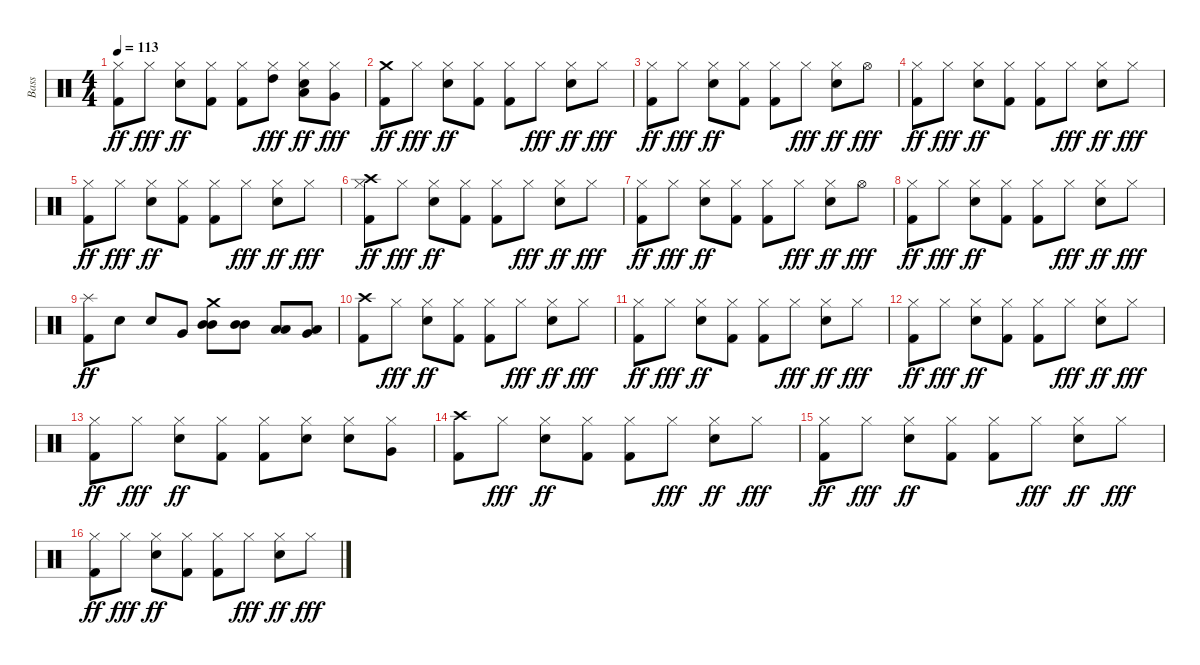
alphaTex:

\track (" Bass" " Bass") {instrument percussion}
\staff {score}
\articulation defaults
\ts (4 4)
\tempo 113
\clef neutral
\ks c
("Hi-Hat (closed)" "Kick (hit) 2").8{dy ff} "Hi-Hat (closed)".8{dy fff} ("Hi-Hat (closed)" "Snare (hit) 2").8{dy ff} ("Hi-Hat (closed)" "Kick (hit) 2").8 ("Hi-Hat (closed)" "Kick (hit) 2").8 ("Hi-Hat (closed)" "High Tom (hit)").8{dy fff} ("Hi-Hat (closed)" "Low Tom (hit)" "Snare (hit) 2").8{dy ff} ("Hi-Hat (closed)" "Very Low Tom (hit)").8{dy fff} |
("Crash medium (hit)" "Kick (hit) 2").8{dy ff} "Hi-Hat (closed)".8{dy fff} ("Hi-Hat (closed)" "Snare (hit) 2").8{dy ff} ("Hi-Hat (closed)" "Kick (hit) 2").8 ("Hi-Hat (closed)" "Kick (hit) 2").8 "Hi-Hat (closed)".8{dy fff} ("Hi-Hat (closed)" "Snare (hit) 2").8{dy ff} "Hi-Hat (closed)".8{dy fff} |
("Hi-Hat (closed)" "Kick (hit) 2").8{dy ff} "Hi-Hat (closed)".8{dy fff} ("Hi-Hat (closed)" "Snare (hit) 2").8{dy ff} ("Hi-Hat (closed)" "Kick (hit) 2").8 ("Hi-Hat (closed)" "Kick (hit) 2").8 "Hi-Hat (closed)".8{dy fff} ("Hi-Hat (closed)" "Snare (hit) 2").8{dy ff} "Hi-Hat (open)".8{dy fff} |
("Hi-Hat (closed)" "Kick (hit) 2").8{dy ff} "Hi-Hat (closed)".8{dy fff} ("Hi-Hat (closed)" "Snare (hit) 2").8{dy ff} ("Hi-Hat (closed)" "Kick (hit) 2").8 ("Hi-Hat (closed)" "Kick (hit) 2").8 "Hi-Hat (closed)".8{dy fff} ("Hi-Hat (closed)" "Snare (hit) 2").8{dy ff} "Hi-Hat (closed)".8{dy fff} |
("Hi-Hat (closed)" "Kick (hit) 2").8{dy ff} "Hi-Hat (closed)".8{dy fff} ("Hi-Hat (closed)" "Snare (hit) 2").8{dy ff} ("Hi-Hat (closed)" "Kick (hit) 2").8 ("Hi-Hat (closed)" "Kick (hit) 2").8 "Hi-Hat (closed)".8{dy fff} ("Hi-Hat (closed)" "Snare (hit) 2").8{dy ff} "Hi-Hat (closed)".8{dy fff} |
("Crash high (hit)" "Hi-Hat (closed)" "Kick (hit) 2").8{dy ff} "Hi-Hat (closed)".8{dy fff} ("Hi-Hat (closed)" "Snare (hit) 2").8{dy ff} ("Hi-Hat (closed)" "Kick (hit) 2").8 ("Hi-Hat (closed)" "Kick (hit) 2").8 "Hi-Hat (closed)".8{dy fff} ("Hi-Hat (closed)" "Snare (hit) 2").8{dy ff} "Hi-Hat (closed)".8{dy fff} |
("Hi-Hat (closed)" "Kick (hit) 2").8{dy ff} "Hi-Hat (closed)".8{dy fff} ("Hi-Hat (closed)" "Snare (hit) 2").8{dy ff} ("Hi-Hat (closed)" "Kick (hit) 2").8 ("Hi-Hat (closed)" "Kick (hit) 2").8 "Hi-Hat (closed)".8{dy fff} ("Hi-Hat (closed)" "Snare (hit) 2").8{dy ff} "Hi-Hat (open)".8{dy fff} |
("Hi-Hat (closed)" "Kick (hit) 2").8{dy ff} "Hi-Hat (closed)".8{dy fff} ("Hi-Hat (closed)" "Snare (hit) 2").8{dy ff} ("Hi-Hat (closed)" "Kick (hit) 2").8 ("Hi-Hat (closed)" "Kick (hit) 2").8 "Hi-Hat (closed)".8{dy fff} ("Hi-Hat (closed)" "Snare (hit) 2").8{dy ff} "Hi-Hat (closed)".8{dy fff} |
("Splash (hit)" "Kick (hit) 2").8{dy ff} "Snare (hit) 2".8 "Snare (hit) 2".8 "Very Low Tom (hit)".8 ("Crash medium (hit)" "Mid Tom (hit)" "Mid Tom (hit)").8 ("Mid Tom (hit)" "Mid Tom (hit)").8 ("Low Tom (hit)" "Low Tom (hit)").8 ("Very Low Tom (hit)" "Low Floor Tom (hit)").8 |
("Crash high (hit)" "Kick (hit) 2").8 "Hi-Hat (closed)".8{dy fff} ("Hi-Hat (closed)" "Snare (hit) 2").8{dy ff} ("Hi-Hat (closed)" "Kick (hit) 2").8 ("Hi-Hat (closed)" "Kick (hit) 2").8 "Hi-Hat (closed)".8{dy fff} ("Hi-Hat (closed)" "Snare (hit) 2").8{dy ff} "Hi-Hat (closed)".8{dy fff} |
("Hi-Hat (closed)" "Kick (hit) 2").8{dy ff} "Hi-Hat (closed)".8{dy fff} ("Hi-Hat (closed)" "Snare (hit) 2").8{dy ff} ("Hi-Hat (closed)" "Kick (hit) 2").8 ("Hi-Hat (closed)" "Kick (hit) 2").8 "Hi-Hat (closed)".8{dy fff} ("Hi-Hat (closed)" "Snare (hit) 2").8{dy ff} "Hi-Hat (closed)".8{dy fff} |
("Hi-Hat (closed)" "Kick (hit) 2").8{dy ff} "Hi-Hat (closed)".8{dy fff} ("Hi-Hat (closed)" "Snare (hit) 2").8{dy ff} ("Hi-Hat (closed)" "Kick (hit) 2").8 ("Hi-Hat (closed)" "Kick (hit) 2").8 "Hi-Hat (closed)".8{dy fff} ("Hi-Hat (closed)" "Snare (hit) 2").8{dy ff} "Hi-Hat (closed)".8{dy fff} |
("Hi-Hat (closed)" "Kick (hit) 2").8{dy ff} "Hi-Hat (closed)".8{dy fff} ("Hi-Hat (closed)" "Snare (hit) 2").8{dy ff} ("Hi-Hat (closed)" "Kick (hit) 2").8 ("Hi-Hat (closed)" "Kick (hit) 2").8 ("Hi-Hat (closed)" "Snare (hit) 2").8 ("Hi-Hat (closed)" "Snare (hit) 2").8 ("Hi-Hat (closed)" "Very Low Tom (hit)").8 |
("Crash high (hit)" "Kick (hit) 2").8 "Hi-Hat (closed)".8{dy fff} ("Hi-Hat (closed)" "Snare (hit) 2").8{dy ff} ("Hi-Hat (closed)" "Kick (hit) 2").8 ("Hi-Hat (closed)" "Kick (hit) 2").8 "Hi-Hat (closed)".8{dy fff} ("Hi-Hat (closed)" "Snare (hit) 2").8{dy ff} "Hi-Hat (closed)".8{dy fff} |
("Hi-Hat (closed)" "Kick (hit) 2").8{dy ff} "Hi-Hat (closed)".8{dy fff} ("Hi-Hat (closed)" "Snare (hit) 2").8{dy ff} ("Hi-Hat (closed)" "Kick (hit) 2").8 ("Hi-Hat (closed)" "Kick (hit) 2").8 "Hi-Hat (closed)".8{dy fff} ("Hi-Hat (closed)" "Snare (hit) 2").8{dy ff} "Hi-Hat (closed)".8{dy fff} |
("Hi-Hat (closed)" "Kick (hit) 2").8{dy ff} "Hi-Hat (closed)".8{dy fff} ("Hi-Hat (closed)" "Snare (hit) 2").8{dy ff} ("Hi-Hat (closed)" "Kick (hit) 2").8 ("Hi-Hat (closed)" "Kick (hit) 2").8 "Hi-Hat (closed)".8{dy fff} ("Hi-Hat (closed)" "Snare (hit) 2").8{dy ff} "Hi-Hat (closed)".8{dy fff}
